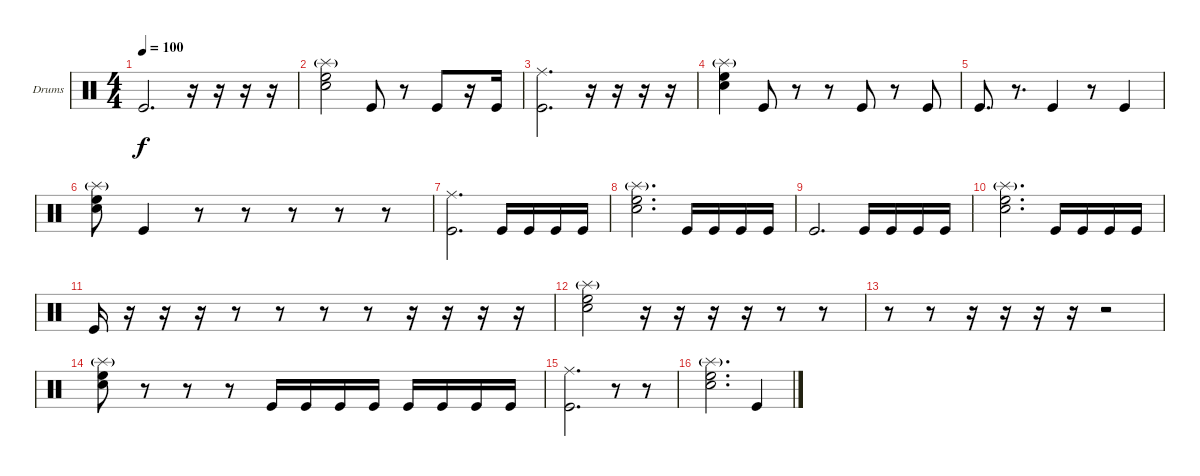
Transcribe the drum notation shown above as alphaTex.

\bracketExtendMode groupsimilarinstruments
\firstSystemTrackNameOrientation horizontal
\otherSystemsTrackNameOrientation horizontal
\track ("Drumkit" "Drums") {instrument percussion}
\staff {score}
\articulation defaults
\ts (4 4)
\tempo 100
\clef neutral
\ks c "Kick (hit)".2{d dy f}
r.16 r.16 r.16 r.16 |
("Snare (hit) 2" "High Floor Tom (hit)" "Splash (hit)"{g}).2 "Kick (hit)".8 r.8 "Kick (hit)".8 r.16 "Kick (hit)".16 |
("Ride (middle)" "Kick (hit)").2{d} r.16 r.16 r.16 r.16 |
("Snare (hit) 2" "High Floor Tom (hit)" "Splash (hit)"{g}).4 "Kick (hit)".8 r.8 r.8 "Kick (hit)".8 r.8 "Kick (hit)".8 |
"Kick (hit)".8{d} r.8{d} "Kick (hit)".4 r.8 "Kick (hit)".4 |
("Snare (hit) 2" "High Floor Tom (hit)" "Splash (hit)"{g}).8 "Kick (hit)".4 r.8 r.8 r.8 r.8 r.8 |
("Ride (middle)" "Kick (hit)").2{d} "Kick (hit)".16 "Kick (hit)".16 "Kick (hit)".16 "Kick (hit)".16 |
("Snare (hit) 2" "High Floor Tom (hit)" "Splash (hit)"{g}).2{d} "Kick (hit)".16 "Kick (hit)".16 "Kick (hit)".16 "Kick (hit)".16 |
"Kick (hit)".2{d} "Kick (hit)".16 "Kick (hit)".16 "Kick (hit)".16 "Kick (hit)".16 |
("Snare (hit) 2" "High Floor Tom (hit)" "Splash (hit)"{g}).2{d} "Kick (hit)".16 "Kick (hit)".16 "Kick (hit)".16 "Kick (hit)".16 |
"Kick (hit)".16 r.16 r.16 r.16 r.8 r.8 r.8 r.8 r.16 r.16 r.16 r.16 |
("Snare (hit) 2" "High Floor Tom (hit)" "Splash (hit)"{g}).2 r.16 r.16 r.16 r.16 r.8 r.8 |
r.8 r.8 r.16 r.16 r.16 r.16 r.2 |
("Snare (hit) 2" "High Floor Tom (hit)" "Splash (hit)"{g}).8 r.8 r.8 r.8 "Kick (hit)".16 "Kick (hit)".16 "Kick (hit)".16 "Kick (hit)".16 "Kick (hit)".16 "Kick (hit)".16 "Kick (hit)".16 "Kick (hit)".16 |
("Ride (middle)" "Kick (hit)").2{d} r.8 r.8 |
("Snare (hit) 2" "High Floor Tom (hit)" "Splash (hit)"{g}).2{d} "Kick (hit)".4
